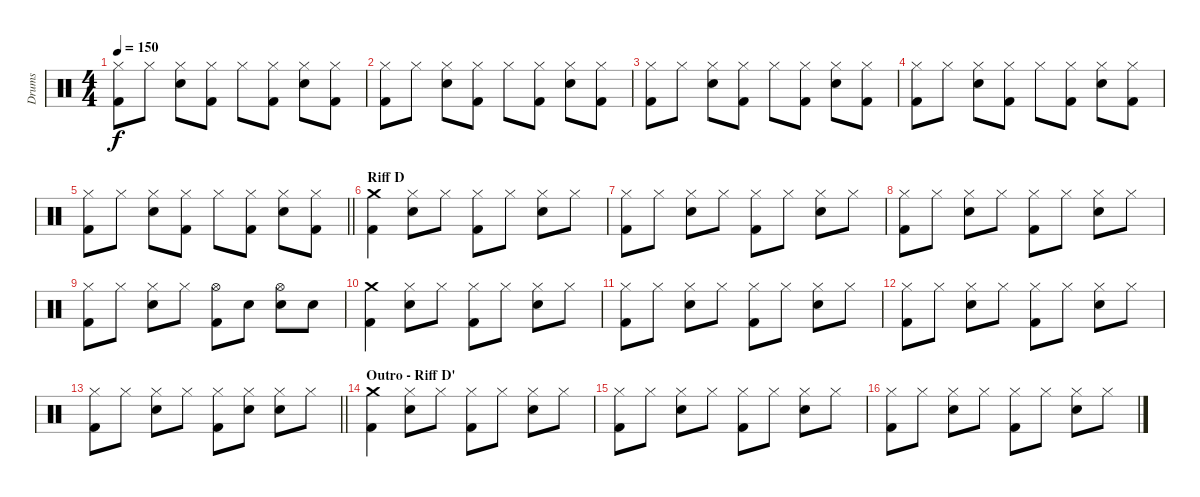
\track ("Drums" "Drums") {instrument percussion}
\staff {score}
\articulation defaults
\ts (4 4)
\tempo 150
\clef neutral
\ks c
("Hi-Hat (closed)" "Kick (hit) 2").8{dy f} "Hi-Hat (closed)".8 ("Hi-Hat (closed)" "Electric Snare (hit)").8 ("Hi-Hat (closed)" "Kick (hit) 2").8 "Hi-Hat (closed)".8 ("Hi-Hat (closed)" "Kick (hit) 2").8 ("Hi-Hat (closed)" "Electric Snare (hit)").8 ("Hi-Hat (closed)" "Kick (hit) 2").8 |
("Hi-Hat (closed)" "Kick (hit) 2").8 "Hi-Hat (closed)".8 ("Hi-Hat (closed)" "Electric Snare (hit)").8 ("Hi-Hat (closed)" "Kick (hit) 2").8 "Hi-Hat (closed)".8 ("Hi-Hat (closed)" "Kick (hit) 2").8 ("Hi-Hat (closed)" "Electric Snare (hit)").8 ("Hi-Hat (closed)" "Kick (hit) 2").8 |
("Hi-Hat (closed)" "Kick (hit) 2").8 "Hi-Hat (closed)".8 ("Hi-Hat (closed)" "Electric Snare (hit)").8 ("Hi-Hat (closed)" "Kick (hit) 2").8 "Hi-Hat (closed)".8 ("Hi-Hat (closed)" "Kick (hit) 2").8 ("Hi-Hat (closed)" "Electric Snare (hit)").8 ("Hi-Hat (closed)" "Kick (hit) 2").8 |
("Hi-Hat (closed)" "Kick (hit) 2").8 "Hi-Hat (closed)".8 ("Hi-Hat (closed)" "Electric Snare (hit)").8 ("Hi-Hat (closed)" "Kick (hit) 2").8 "Hi-Hat (closed)".8 ("Hi-Hat (closed)" "Kick (hit) 2").8 ("Hi-Hat (closed)" "Electric Snare (hit)").8 ("Hi-Hat (closed)" "Kick (hit) 2").8 |
\barLineRight lightlight
("Hi-Hat (closed)" "Kick (hit) 2").8 "Hi-Hat (closed)".8 ("Hi-Hat (closed)" "Electric Snare (hit)").8 ("Hi-Hat (closed)" "Kick (hit) 2").8 "Hi-Hat (closed)".8 ("Hi-Hat (closed)" "Kick (hit) 2").8 ("Hi-Hat (closed)" "Electric Snare (hit)").8 ("Hi-Hat (closed)" "Kick (hit) 2").8 |
\section ("" "Riff D")
("Crash medium (hit)" "Kick (hit) 2").4 ("Hi-Hat (closed)" "Electric Snare (hit)").8 "Hi-Hat (closed)".8 ("Hi-Hat (closed)" "Kick (hit) 2").8 "Hi-Hat (closed)".8 ("Hi-Hat (closed)" "Electric Snare (hit)").8 "Hi-Hat (closed)".8 |
("Hi-Hat (closed)" "Kick (hit) 2").8 "Hi-Hat (closed)".8 ("Hi-Hat (closed)" "Electric Snare (hit)").8 "Hi-Hat (closed)".8 ("Hi-Hat (closed)" "Kick (hit) 2").8 "Hi-Hat (closed)".8 ("Hi-Hat (closed)" "Electric Snare (hit)").8 "Hi-Hat (closed)".8 |
("Hi-Hat (closed)" "Kick (hit) 2").8 "Hi-Hat (closed)".8 ("Hi-Hat (closed)" "Electric Snare (hit)").8 "Hi-Hat (closed)".8 ("Hi-Hat (closed)" "Kick (hit) 2").8 "Hi-Hat (closed)".8 ("Hi-Hat (closed)" "Electric Snare (hit)").8 "Hi-Hat (closed)".8 |
("Hi-Hat (closed)" "Kick (hit) 2").8 "Hi-Hat (closed)".8 ("Hi-Hat (closed)" "Electric Snare (hit)").8 "Hi-Hat (closed)".8 ("Hi-Hat (open)" "Kick (hit) 2").8 "Electric Snare (hit)".8 ("Hi-Hat (open)" "Electric Snare (hit)").8 "Electric Snare (hit)".8 |
("Crash medium (hit)" "Kick (hit) 2").4 ("Hi-Hat (closed)" "Electric Snare (hit)").8 "Hi-Hat (closed)".8 ("Hi-Hat (closed)" "Kick (hit) 2").8 "Hi-Hat (closed)".8 ("Hi-Hat (closed)" "Electric Snare (hit)").8 "Hi-Hat (closed)".8 |
("Hi-Hat (closed)" "Kick (hit) 2").8 "Hi-Hat (closed)".8 ("Hi-Hat (closed)" "Electric Snare (hit)").8 "Hi-Hat (closed)".8 ("Hi-Hat (closed)" "Kick (hit) 2").8 "Hi-Hat (closed)".8 ("Hi-Hat (closed)" "Electric Snare (hit)").8 "Hi-Hat (closed)".8 |
("Hi-Hat (closed)" "Kick (hit) 2").8 "Hi-Hat (closed)".8 ("Hi-Hat (closed)" "Electric Snare (hit)").8 "Hi-Hat (closed)".8 ("Hi-Hat (closed)" "Kick (hit) 2").8 "Hi-Hat (closed)".8 ("Hi-Hat (closed)" "Electric Snare (hit)").8 "Hi-Hat (closed)".8 |
\barLineRight lightlight
("Hi-Hat (closed)" "Kick (hit) 2").8 "Hi-Hat (closed)".8 ("Hi-Hat (closed)" "Electric Snare (hit)").8 "Hi-Hat (closed)".8 ("Hi-Hat (closed)" "Kick (hit) 2").8 ("Hi-Hat (closed)" "Electric Snare (hit)").8 ("Hi-Hat (closed)" "Electric Snare (hit)").8 "Hi-Hat (closed)".8 |
\section ("" "Outro - Riff D'")
("Crash medium (hit)" "Kick (hit) 2").4 ("Hi-Hat (closed)" "Electric Snare (hit)").8 "Hi-Hat (closed)".8 ("Hi-Hat (closed)" "Kick (hit) 2").8 "Hi-Hat (closed)".8 ("Hi-Hat (closed)" "Electric Snare (hit)").8 "Hi-Hat (closed)".8 |
("Hi-Hat (closed)" "Kick (hit) 2").8 "Hi-Hat (closed)".8 ("Hi-Hat (closed)" "Electric Snare (hit)").8 "Hi-Hat (closed)".8 ("Hi-Hat (closed)" "Kick (hit) 2").8 "Hi-Hat (closed)".8 ("Hi-Hat (closed)" "Electric Snare (hit)").8 "Hi-Hat (closed)".8 |
("Hi-Hat (closed)" "Kick (hit) 2").8 "Hi-Hat (closed)".8 ("Hi-Hat (closed)" "Electric Snare (hit)").8 "Hi-Hat (closed)".8 ("Hi-Hat (closed)" "Kick (hit) 2").8 "Hi-Hat (closed)".8 ("Hi-Hat (closed)" "Electric Snare (hit)").8 "Hi-Hat (closed)".8
